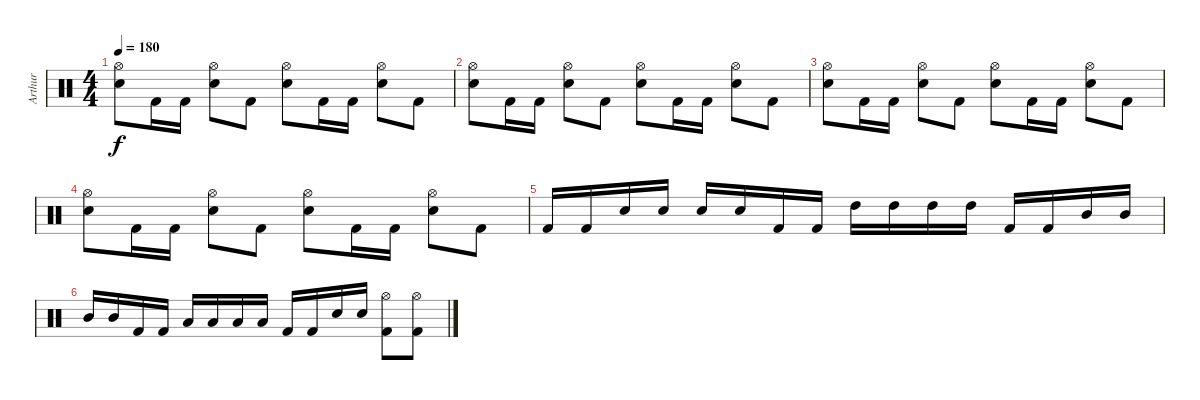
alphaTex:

\track ("Arthur" "Arthur") {instrument percussion}
\staff {score}
\articulation defaults
\ts (4 4)
\tempo 180
\clef neutral
\ks c
("Hi-Hat (open)" "Electric Snare (hit)").8{dy f} "Kick (hit) 2".16 "Kick (hit) 2".16 ("Hi-Hat (open)" "Electric Snare (hit)").8 "Kick (hit) 2".8 ("Hi-Hat (open)" "Electric Snare (hit)").8 "Kick (hit) 2".16 "Kick (hit) 2".16 ("Hi-Hat (open)" "Electric Snare (hit)").8 "Kick (hit) 2".8 |
("Hi-Hat (open)" "Electric Snare (hit)").8 "Kick (hit) 2".16 "Kick (hit) 2".16 ("Hi-Hat (open)" "Electric Snare (hit)").8 "Kick (hit) 2".8 ("Hi-Hat (open)" "Electric Snare (hit)").8 "Kick (hit) 2".16 "Kick (hit) 2".16 ("Hi-Hat (open)" "Electric Snare (hit)").8 "Kick (hit) 2".8 |
("Hi-Hat (open)" "Electric Snare (hit)").8 "Kick (hit) 2".16 "Kick (hit) 2".16 ("Hi-Hat (open)" "Electric Snare (hit)").8 "Kick (hit) 2".8 ("Hi-Hat (open)" "Electric Snare (hit)").8 "Kick (hit) 2".16 "Kick (hit) 2".16 ("Hi-Hat (open)" "Electric Snare (hit)").8 "Kick (hit) 2".8 |
("Hi-Hat (open)" "Electric Snare (hit)").8 "Kick (hit) 2".16 "Kick (hit) 2".16 ("Hi-Hat (open)" "Electric Snare (hit)").8 "Kick (hit) 2".8 ("Hi-Hat (open)" "Electric Snare (hit)").8 "Kick (hit) 2".16 "Kick (hit) 2".16 ("Hi-Hat (open)" "Electric Snare (hit)").8 "Kick (hit) 2".8 |
"Kick (hit) 2".16 "Kick (hit) 2".16 "Electric Snare (hit)".16 "Electric Snare (hit)".16 "Electric Snare (hit)".16 "Electric Snare (hit)".16 "Kick (hit) 2".16 "Kick (hit) 2".16 "High Tom (hit)".16 "High Tom (hit)".16 "High Tom (hit)".16 "High Tom (hit)".16 "Kick (hit) 2".16 "Kick (hit) 2".16 "Mid Tom (hit)".16 "Mid Tom (hit)".16 |
"Mid Tom (hit)".16 "Mid Tom (hit)".16 "Kick (hit) 2".16 "Kick (hit) 2".16 "Low Tom (hit)".16 "Low Tom (hit)".16 "Low Tom (hit)".16 "Low Tom (hit)".16 "Kick (hit) 2".16 "Kick (hit) 2".16 "Electric Snare (hit)".16 "Electric Snare (hit)".16 ("Hi-Hat (open)" "Kick (hit) 2").8 ("Hi-Hat (open)" "Kick (hit) 2").8
